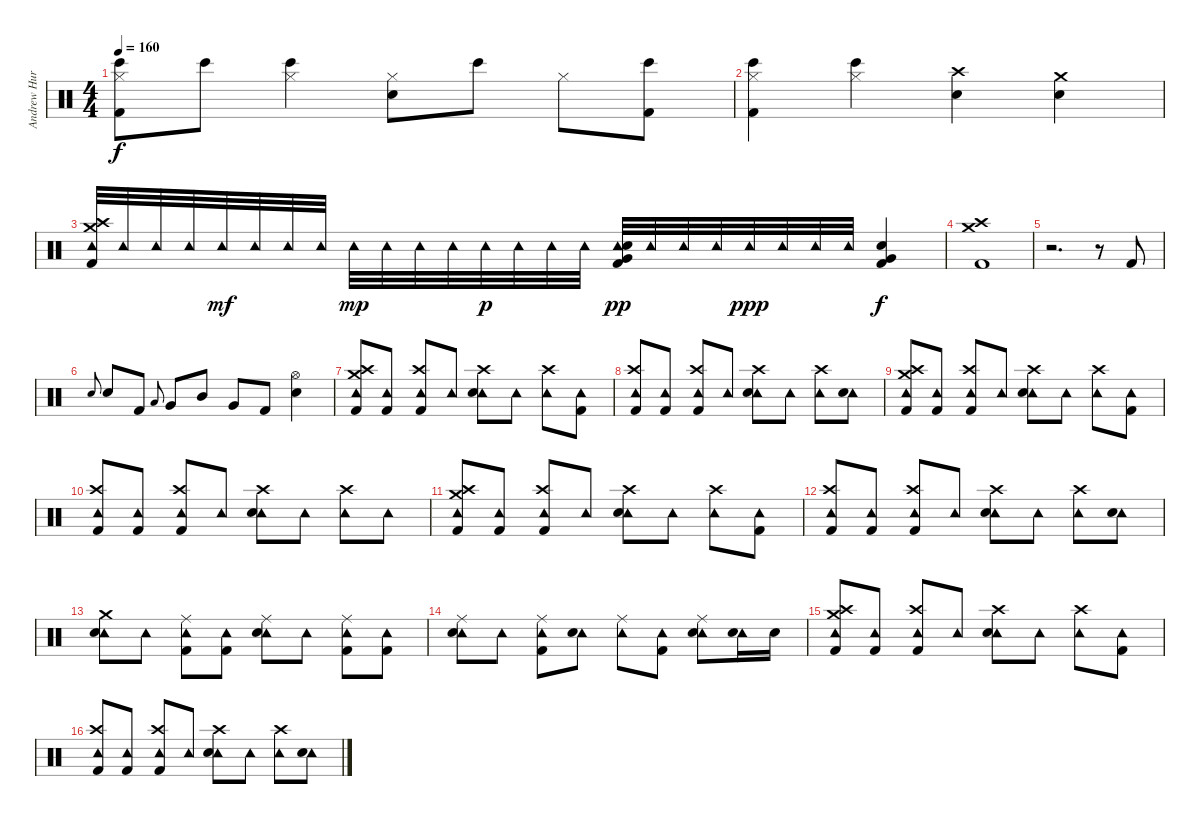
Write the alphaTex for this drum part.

\track ("Andrew Hurley (Drums)" "Andrew Hur") {instrument percussion}
\staff {score}
\articulation defaults
\ts (4 4)
\tempo 160
\clef neutral
\ks c
("Hi-Hat (closed)" "Bongo High (hit)" "Kick (hit) 2").8{dy f} "Bongo High (hit)".8 ("Hi-Hat (closed)" "Bongo High (hit)").4 ("Hi-Hat (closed)" "Snare (hit) 2").8 "Bongo High (hit)".8 "Hi-Hat (closed)".8 ("Bongo High (hit)" "Kick (hit) 2").8 |
("Hi-Hat (closed)" "Bongo High (hit)" "Kick (hit) 2").4 ("Hi-Hat (closed)" "Bongo High (hit)").4 ("Crash high (hit)" "Snare (hit) 2").4 ("Crash medium (hit)" "Snare (hit) 2").4 |
("Crash high (hit)" "Crash medium (hit)" "Tambourine (hit)" "Kick (hit) 2").32 "Tambourine (hit)".32 "Tambourine (hit)".32 "Tambourine (hit)".32 "Tambourine (hit)".32{dy mf} "Tambourine (hit)".32 "Tambourine (hit)".32 "Tambourine (hit)".32 "Tambourine (hit)".32{dy mp} "Tambourine (hit)".32 "Tambourine (hit)".32 "Tambourine (hit)".32 "Tambourine (hit)".32{dy p} "Tambourine (hit)".32 "Tambourine (hit)".32 "Tambourine (hit)".32 ("Tambourine (hit)" "Very Low Tom (hit)" "Snare (hit) 2" "Kick (hit) 2").32{dy pp} "Tambourine (hit)".32 "Tambourine (hit)".32 "Tambourine (hit)".32 "Tambourine (hit)".32{dy ppp} "Tambourine (hit)".32 "Tambourine (hit)".32 "Tambourine (hit)".32 ("Very Low Tom (hit)" "Snare (hit) 2" "Kick (hit) 2").4{dy f} |
("Crash high (hit)" "Crash medium (hit)" "Kick (hit) 2").1 |
r.2{d} r.8 "Kick (hit) 2".8 |
"Snare (hit) 2".8{gr onbeat} "Snare (hit) 2".8 "Kick (hit) 2".8 "Low Tom (hit)".8{gr onbeat} "Very Low Tom (hit)".8 "Mid Tom (hit)".8 "Very Low Tom (hit)".8 "Kick (hit) 2".8 ("Hi-Hat (open)" "Snare (hit) 2").4 |
("Crash high (hit)" "Crash medium (hit)" "Tambourine (hit)" "Kick (hit) 2").8 ("Tambourine (hit)" "Kick (hit) 2").8 ("Crash high (hit)" "Tambourine (hit)" "Kick (hit) 2").8 "Tambourine (hit)".8 ("Crash high (hit)" "Tambourine (hit)" "Snare (hit) 2").8 "Tambourine (hit)".8 ("Crash high (hit)" "Tambourine (hit)").8 ("Tambourine (hit)" "Kick (hit) 2").8 |
("Crash high (hit)" "Tambourine (hit)" "Kick (hit) 2").8 ("Tambourine (hit)" "Kick (hit) 2").8 ("Crash high (hit)" "Tambourine (hit)" "Kick (hit) 2").8 "Tambourine (hit)".8 ("Crash high (hit)" "Tambourine (hit)" "Snare (hit) 2").8 "Tambourine (hit)".8 ("Crash high (hit)" "Tambourine (hit)").8 ("Tambourine (hit)" "Snare (hit) 2").8 |
("Crash high (hit)" "Crash medium (hit)" "Tambourine (hit)" "Kick (hit) 2").8 ("Tambourine (hit)" "Kick (hit) 2").8 ("Crash high (hit)" "Tambourine (hit)" "Kick (hit) 2").8 "Tambourine (hit)".8 ("Crash high (hit)" "Tambourine (hit)" "Snare (hit) 2").8 "Tambourine (hit)".8 ("Crash high (hit)" "Tambourine (hit)").8 ("Tambourine (hit)" "Kick (hit) 2").8 |
("Crash high (hit)" "Tambourine (hit)" "Kick (hit) 2").8 ("Tambourine (hit)" "Kick (hit) 2").8 ("Crash high (hit)" "Tambourine (hit)" "Kick (hit) 2").8 "Tambourine (hit)".8 ("Crash high (hit)" "Tambourine (hit)" "Snare (hit) 2").8 "Tambourine (hit)".8 ("Crash high (hit)" "Tambourine (hit)").8 "Tambourine (hit)".8 |
("Crash high (hit)" "Crash medium (hit)" "Tambourine (hit)" "Kick (hit) 2").8 ("Tambourine (hit)" "Kick (hit) 2").8 ("Crash high (hit)" "Tambourine (hit)" "Kick (hit) 2").8 "Tambourine (hit)".8 ("Crash high (hit)" "Tambourine (hit)" "Snare (hit) 2").8 "Tambourine (hit)".8 ("Crash high (hit)" "Tambourine (hit)").8 ("Tambourine (hit)" "Kick (hit) 2").8 |
("Crash high (hit)" "Tambourine (hit)" "Kick (hit) 2").8 ("Tambourine (hit)" "Kick (hit) 2").8 ("Crash high (hit)" "Tambourine (hit)" "Kick (hit) 2").8 "Tambourine (hit)".8 ("Crash high (hit)" "Tambourine (hit)" "Snare (hit) 2").8 "Tambourine (hit)".8 ("Crash high (hit)" "Tambourine (hit)").8 ("Tambourine (hit)" "Snare (hit) 2").8 |
("Crash medium (hit)" "Tambourine (hit)" "Snare (hit) 2").8 "Tambourine (hit)".8 ("Ride (middle)" "Tambourine (hit)" "Kick (hit) 2").8 ("Tambourine (hit)" "Kick (hit) 2").8 ("Ride (middle)" "Tambourine (hit)" "Snare (hit) 2").8 "Tambourine (hit)".8 ("Ride (middle)" "Tambourine (hit)" "Kick (hit) 2").8 ("Tambourine (hit)" "Kick (hit) 2").8 |
("Ride (middle)" "Tambourine (hit)" "Snare (hit) 2").8 "Tambourine (hit)".8 ("Ride (middle)" "Tambourine (hit)" "Kick (hit) 2").8 ("Tambourine (hit)" "Snare (hit) 2").8 ("Ride (middle)" "Tambourine (hit)").8 ("Tambourine (hit)" "Kick (hit) 2").8 ("Ride (middle)" "Tambourine (hit)" "Snare (hit) 2").8 ("Tambourine (hit)" "Snare (hit) 2").16 "Snare (hit) 2".16 |
("Crash high (hit)" "Crash medium (hit)" "Tambourine (hit)" "Kick (hit) 2").8 ("Tambourine (hit)" "Kick (hit) 2").8 ("Crash high (hit)" "Tambourine (hit)" "Kick (hit) 2").8 "Tambourine (hit)".8 ("Crash high (hit)" "Tambourine (hit)" "Snare (hit) 2").8 "Tambourine (hit)".8 ("Crash high (hit)" "Tambourine (hit)").8 ("Tambourine (hit)" "Kick (hit) 2").8 |
("Crash high (hit)" "Tambourine (hit)" "Kick (hit) 2").8 ("Tambourine (hit)" "Kick (hit) 2").8 ("Crash high (hit)" "Tambourine (hit)" "Kick (hit) 2").8 "Tambourine (hit)".8 ("Crash high (hit)" "Tambourine (hit)" "Snare (hit) 2").8 "Tambourine (hit)".8 ("Crash high (hit)" "Tambourine (hit)").8 ("Tambourine (hit)" "Snare (hit) 2").8
